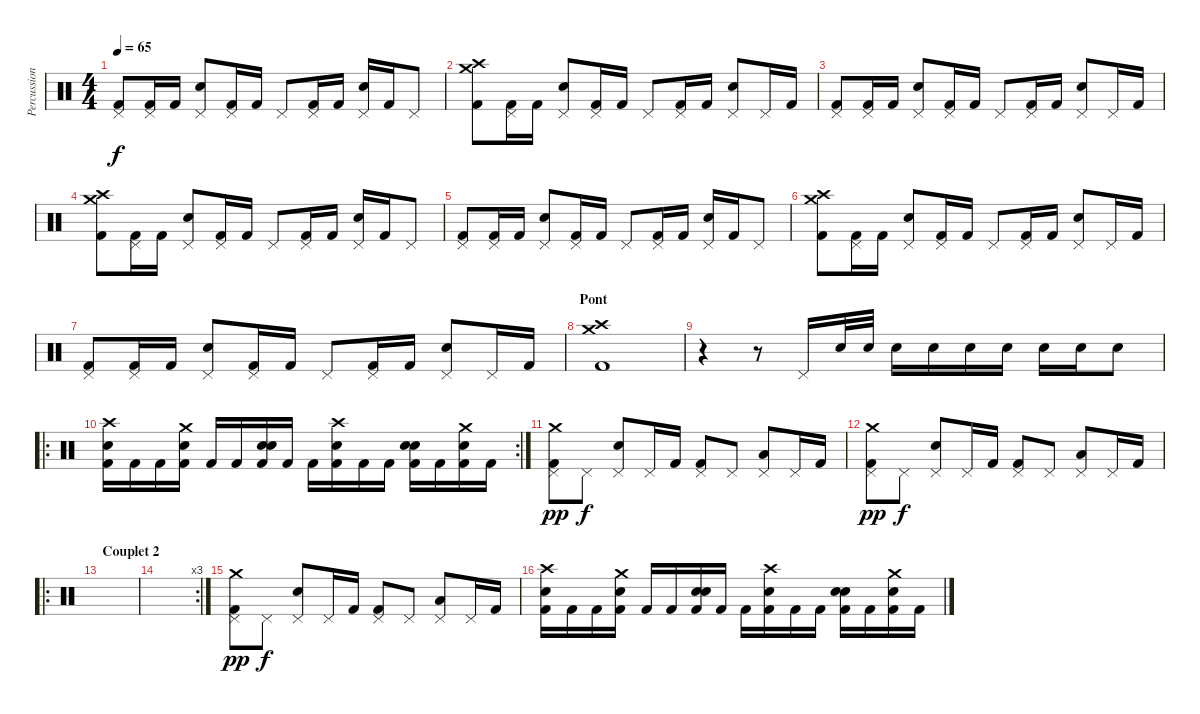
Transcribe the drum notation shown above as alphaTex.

\track ("Percussions" "Percussion") {instrument percussion}
\staff {score}
\articulation defaults
\ts (4 4)
\tempo 65
\clef neutral
\ks c
("Pedal Hi-Hat (hit)" "Kick (hit) 2").8{dy f} ("Pedal Hi-Hat (hit)" "Kick (hit) 2").16 "Kick (hit) 2".16 ("Pedal Hi-Hat (hit)" "Electric Snare (hit)").8 ("Pedal Hi-Hat (hit)" "Kick (hit) 2").16 "Kick (hit) 2".16 "Pedal Hi-Hat (hit)".8 ("Pedal Hi-Hat (hit)" "Kick (hit) 2").16 "Kick (hit) 2".16 ("Pedal Hi-Hat (hit)" "Electric Snare (hit)").16 "Kick (hit) 2".16 "Pedal Hi-Hat (hit)".8 |
("Crash high (hit)" "Crash medium (hit)" "Kick (hit) 2").8 ("Pedal Hi-Hat (hit)" "Kick (hit) 2").16 "Kick (hit) 2".16 ("Pedal Hi-Hat (hit)" "Electric Snare (hit)").8 ("Pedal Hi-Hat (hit)" "Kick (hit) 2").16 "Kick (hit) 2".16 "Pedal Hi-Hat (hit)".8 ("Pedal Hi-Hat (hit)" "Kick (hit) 2").16 "Kick (hit) 2".16 ("Pedal Hi-Hat (hit)" "Electric Snare (hit)").8 "Pedal Hi-Hat (hit)".16 "Kick (hit) 2".16 |
("Pedal Hi-Hat (hit)" "Kick (hit) 2").8 ("Pedal Hi-Hat (hit)" "Kick (hit) 2").16 "Kick (hit) 2".16 ("Pedal Hi-Hat (hit)" "Electric Snare (hit)").8 ("Pedal Hi-Hat (hit)" "Kick (hit) 2").16 "Kick (hit) 2".16 "Pedal Hi-Hat (hit)".8 ("Pedal Hi-Hat (hit)" "Kick (hit) 2").16 "Kick (hit) 2".16 ("Pedal Hi-Hat (hit)" "Electric Snare (hit)").8 "Pedal Hi-Hat (hit)".16 "Kick (hit) 2".16 |
("Crash high (hit)" "Crash medium (hit)" "Kick (hit) 2").8 ("Pedal Hi-Hat (hit)" "Kick (hit) 2").16 "Kick (hit) 2".16 ("Pedal Hi-Hat (hit)" "Electric Snare (hit)").8 ("Pedal Hi-Hat (hit)" "Kick (hit) 2").16 "Kick (hit) 2".16 "Pedal Hi-Hat (hit)".8 ("Pedal Hi-Hat (hit)" "Kick (hit) 2").16 "Kick (hit) 2".16 ("Pedal Hi-Hat (hit)" "Electric Snare (hit)").16 "Kick (hit) 2".16 "Pedal Hi-Hat (hit)".8 |
("Pedal Hi-Hat (hit)" "Kick (hit) 2").8 ("Pedal Hi-Hat (hit)" "Kick (hit) 2").16 "Kick (hit) 2".16 ("Pedal Hi-Hat (hit)" "Electric Snare (hit)").8 ("Pedal Hi-Hat (hit)" "Kick (hit) 2").16 "Kick (hit) 2".16 "Pedal Hi-Hat (hit)".8 ("Pedal Hi-Hat (hit)" "Kick (hit) 2").16 "Kick (hit) 2".16 ("Pedal Hi-Hat (hit)" "Electric Snare (hit)").16 "Kick (hit) 2".16 "Pedal Hi-Hat (hit)".8 |
("Crash high (hit)" "Crash medium (hit)" "Kick (hit) 2").8 ("Pedal Hi-Hat (hit)" "Kick (hit) 2").16 "Kick (hit) 2".16 ("Pedal Hi-Hat (hit)" "Electric Snare (hit)").8 ("Pedal Hi-Hat (hit)" "Kick (hit) 2").16 "Kick (hit) 2".16 "Pedal Hi-Hat (hit)".8 ("Pedal Hi-Hat (hit)" "Kick (hit) 2").16 "Kick (hit) 2".16 ("Pedal Hi-Hat (hit)" "Electric Snare (hit)").8 "Pedal Hi-Hat (hit)".16 "Kick (hit) 2".16 |
("Pedal Hi-Hat (hit)" "Kick (hit) 2").8 ("Pedal Hi-Hat (hit)" "Kick (hit) 2").16 "Kick (hit) 2".16 ("Pedal Hi-Hat (hit)" "Electric Snare (hit)").8 ("Pedal Hi-Hat (hit)" "Kick (hit) 2").16 "Kick (hit) 2".16 "Pedal Hi-Hat (hit)".8 ("Pedal Hi-Hat (hit)" "Kick (hit) 2").16 "Kick (hit) 2".16 ("Pedal Hi-Hat (hit)" "Electric Snare (hit)").8 "Pedal Hi-Hat (hit)".16 "Kick (hit) 2".16 |
\section ("" "Pont")
("Crash medium (hit)" "Crash high (hit)" "Kick (hit) 2").1 |
r.4 r.8 "Pedal Hi-Hat (hit)".16 "Electric Snare (hit)".32 "Electric Snare (hit)".32 "Electric Snare (hit)".16 "Electric Snare (hit)".16 "Electric Snare (hit)".16 "Electric Snare (hit)".16 "Electric Snare (hit)".16 "Snare (hit) 2".16 "Electric Snare (hit)".8 |
\ro
\rc 2
("Crash high (hit)" "Electric Snare (hit)" "Kick (hit) 2").16 "Kick (hit) 2".16 "Kick (hit) 2".16 ("Crash medium (hit)" "Electric Snare (hit)" "Kick (hit) 2").16 "Kick (hit) 2".16 "Kick (hit) 2".16 ("Snare (hit) 2" "Electric Snare (hit)" "Kick (hit) 2").16 "Kick (hit) 2".16 "Kick (hit) 2".16 ("Crash high (hit)" "Electric Snare (hit)" "Kick (hit) 2").16 "Kick (hit) 2".16 "Kick (hit) 2".16 ("Snare (hit) 2" "Electric Snare (hit)" "Kick (hit) 2").16 "Kick (hit) 2".16 ("Crash medium (hit)" "Electric Snare (hit)" "Kick (hit) 2").16 "Kick (hit) 2".16 |
("Pedal Hi-Hat (hit)" "Crash medium (hit)" "Kick (hit) 2").8{dy pp} "Pedal Hi-Hat (hit)".8{dy f} ("Pedal Hi-Hat (hit)" "Electric Snare (hit)").8 "Pedal Hi-Hat (hit)".16 "Kick (hit) 2".16 ("Pedal Hi-Hat (hit)" "Kick (hit) 2").8 "Pedal Hi-Hat (hit)".8 ("Pedal Hi-Hat (hit)" "Low Tom (hit)").8 "Pedal Hi-Hat (hit)".16 "Kick (hit) 2".16 |
("Pedal Hi-Hat (hit)" "Crash medium (hit)" "Kick (hit) 2").8{dy pp} "Pedal Hi-Hat (hit)".8{dy f} ("Pedal Hi-Hat (hit)" "Electric Snare (hit)").8 "Pedal Hi-Hat (hit)".16 "Kick (hit) 2".16 ("Pedal Hi-Hat (hit)" "Kick (hit) 2").8 "Pedal Hi-Hat (hit)".8 ("Pedal Hi-Hat (hit)" "Low Tom (hit)").8 "Pedal Hi-Hat (hit)".16 "Kick (hit) 2".16 |
\ro
\section ("" "Couplet 2")
|
\rc 3
|
("Pedal Hi-Hat (hit)" "Crash medium (hit)" "Kick (hit) 2").8{dy pp} "Pedal Hi-Hat (hit)".8{dy f} ("Pedal Hi-Hat (hit)" "Electric Snare (hit)").8 "Pedal Hi-Hat (hit)".16 "Kick (hit) 2".16 ("Pedal Hi-Hat (hit)" "Kick (hit) 2").8 "Pedal Hi-Hat (hit)".8 ("Pedal Hi-Hat (hit)" "Low Tom (hit)").8 "Pedal Hi-Hat (hit)".16 "Kick (hit) 2".16 |
("Crash high (hit)" "Electric Snare (hit)" "Kick (hit) 2").16 "Kick (hit) 2".16 "Kick (hit) 2".16 ("Crash medium (hit)" "Electric Snare (hit)" "Kick (hit) 2").16 "Kick (hit) 2".16 "Kick (hit) 2".16 ("Snare (hit) 2" "Electric Snare (hit)" "Kick (hit) 2").16 "Kick (hit) 2".16 "Kick (hit) 2".16 ("Crash high (hit)" "Electric Snare (hit)" "Kick (hit) 2").16 "Kick (hit) 2".16 "Kick (hit) 2".16 ("Snare (hit) 2" "Electric Snare (hit)" "Kick (hit) 2").16 "Kick (hit) 2".16 ("Crash medium (hit)" "Electric Snare (hit)" "Kick (hit) 2").16 "Kick (hit) 2".16
